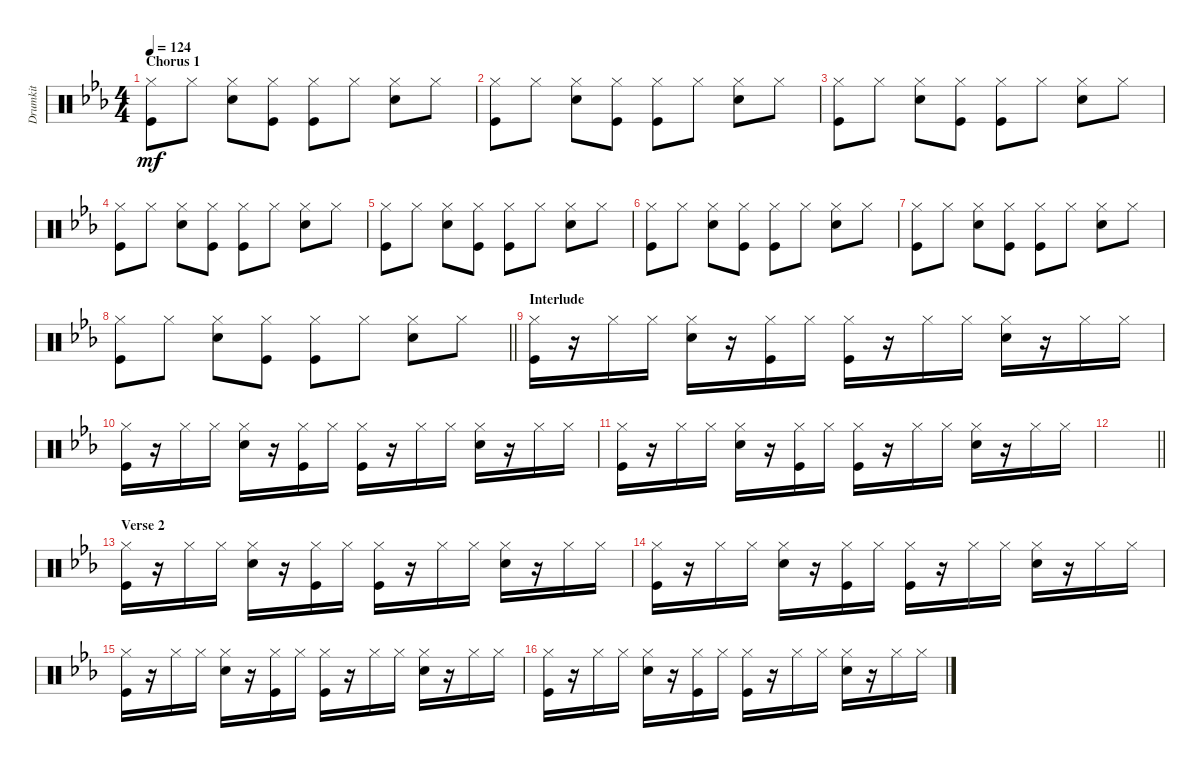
\track ("Drumkit" "Drumkit") {instrument percussion}
\staff {score}
\articulation defaults
\ts (4 4)
\section ("" "Chorus 1")
\tempo 124
\clef neutral
\ks eb
("Hi-Hat (closed)" "Kick (hit)").8{dy mf} "Hi-Hat (closed)".8 ("Hi-Hat (closed)" "Snare (hit) 2").8 ("Hi-Hat (closed)" "Kick (hit)").8 ("Hi-Hat (closed)" "Kick (hit)").8 "Hi-Hat (closed)".8 ("Hi-Hat (closed)" "Snare (hit) 2").8 "Hi-Hat (closed)".8 |
("Hi-Hat (closed)" "Kick (hit)").8 "Hi-Hat (closed)".8 ("Hi-Hat (closed)" "Snare (hit) 2").8 ("Hi-Hat (closed)" "Kick (hit)").8 ("Hi-Hat (closed)" "Kick (hit)").8 "Hi-Hat (closed)".8 ("Hi-Hat (closed)" "Snare (hit) 2").8 "Hi-Hat (closed)".8 |
("Hi-Hat (closed)" "Kick (hit)").8 "Hi-Hat (closed)".8 ("Hi-Hat (closed)" "Snare (hit) 2").8 ("Hi-Hat (closed)" "Kick (hit)").8 ("Hi-Hat (closed)" "Kick (hit)").8 "Hi-Hat (closed)".8 ("Hi-Hat (closed)" "Snare (hit) 2").8 "Hi-Hat (closed)".8 |
("Hi-Hat (closed)" "Kick (hit)").8 "Hi-Hat (closed)".8 ("Hi-Hat (closed)" "Snare (hit) 2").8 ("Hi-Hat (closed)" "Kick (hit)").8 ("Hi-Hat (closed)" "Kick (hit)").8 "Hi-Hat (closed)".8 ("Hi-Hat (closed)" "Snare (hit) 2").8 "Hi-Hat (closed)".8 |
("Hi-Hat (closed)" "Kick (hit)").8 "Hi-Hat (closed)".8 ("Hi-Hat (closed)" "Snare (hit) 2").8 ("Hi-Hat (closed)" "Kick (hit)").8 ("Hi-Hat (closed)" "Kick (hit)").8 "Hi-Hat (closed)".8 ("Hi-Hat (closed)" "Snare (hit) 2").8 "Hi-Hat (closed)".8 |
("Hi-Hat (closed)" "Kick (hit)").8 "Hi-Hat (closed)".8 ("Hi-Hat (closed)" "Snare (hit) 2").8 ("Hi-Hat (closed)" "Kick (hit)").8 ("Hi-Hat (closed)" "Kick (hit)").8 "Hi-Hat (closed)".8 ("Hi-Hat (closed)" "Snare (hit) 2").8 "Hi-Hat (closed)".8 |
("Hi-Hat (closed)" "Kick (hit)").8 "Hi-Hat (closed)".8 ("Hi-Hat (closed)" "Snare (hit) 2").8 ("Hi-Hat (closed)" "Kick (hit)").8 ("Hi-Hat (closed)" "Kick (hit)").8 "Hi-Hat (closed)".8 ("Hi-Hat (closed)" "Snare (hit) 2").8 "Hi-Hat (closed)".8 |
\barLineRight lightlight
("Hi-Hat (closed)" "Kick (hit)").8 "Hi-Hat (closed)".8 ("Hi-Hat (closed)" "Snare (hit) 2").8 ("Hi-Hat (closed)" "Kick (hit)").8 ("Hi-Hat (closed)" "Kick (hit)").8 "Hi-Hat (closed)".8 ("Hi-Hat (closed)" "Snare (hit) 2").8 "Hi-Hat (closed)".8 |
\section ("" "Interlude")
("Hi-Hat (closed)" "Kick (hit)").16 r.16 "Hi-Hat (closed)".16 "Hi-Hat (closed)".16 ("Hi-Hat (closed)" "Snare (hit) 2").16 r.16 ("Hi-Hat (closed)" "Kick (hit)").16 "Hi-Hat (closed)".16 ("Hi-Hat (closed)" "Kick (hit)").16 r.16 "Hi-Hat (closed)".16 "Hi-Hat (closed)".16 ("Hi-Hat (closed)" "Snare (hit) 2").16 r.16 "Hi-Hat (closed)".16 "Hi-Hat (closed)".16 |
("Hi-Hat (closed)" "Kick (hit)").16 r.16 "Hi-Hat (closed)".16 "Hi-Hat (closed)".16 ("Hi-Hat (closed)" "Snare (hit) 2").16 r.16 ("Hi-Hat (closed)" "Kick (hit)").16 "Hi-Hat (closed)".16 ("Hi-Hat (closed)" "Kick (hit)").16 r.16 "Hi-Hat (closed)".16 "Hi-Hat (closed)".16 ("Hi-Hat (closed)" "Snare (hit) 2").16 r.16 "Hi-Hat (closed)".16 "Hi-Hat (closed)".16 |
("Hi-Hat (closed)" "Kick (hit)").16 r.16 "Hi-Hat (closed)".16 "Hi-Hat (closed)".16 ("Hi-Hat (closed)" "Snare (hit) 2").16 r.16 ("Hi-Hat (closed)" "Kick (hit)").16 "Hi-Hat (closed)".16 ("Hi-Hat (closed)" "Kick (hit)").16 r.16 "Hi-Hat (closed)".16 "Hi-Hat (closed)".16 ("Hi-Hat (closed)" "Snare (hit) 2").16 r.16 "Hi-Hat (closed)".16 "Hi-Hat (closed)".16 |
\barLineRight lightlight
|
\section ("" "Verse 2")
("Hi-Hat (closed)" "Kick (hit)").16 r.16 "Hi-Hat (closed)".16 "Hi-Hat (closed)".16 ("Hi-Hat (closed)" "Snare (hit) 2").16 r.16 ("Hi-Hat (closed)" "Kick (hit)").16 "Hi-Hat (closed)".16 ("Hi-Hat (closed)" "Kick (hit)").16 r.16 "Hi-Hat (closed)".16 "Hi-Hat (closed)".16 ("Hi-Hat (closed)" "Snare (hit) 2").16 r.16 "Hi-Hat (closed)".16 "Hi-Hat (closed)".16 |
("Hi-Hat (closed)" "Kick (hit)").16 r.16 "Hi-Hat (closed)".16 "Hi-Hat (closed)".16 ("Hi-Hat (closed)" "Snare (hit) 2").16 r.16 ("Hi-Hat (closed)" "Kick (hit)").16 "Hi-Hat (closed)".16 ("Hi-Hat (closed)" "Kick (hit)").16 r.16 "Hi-Hat (closed)".16 "Hi-Hat (closed)".16 ("Hi-Hat (closed)" "Snare (hit) 2").16 r.16 "Hi-Hat (closed)".16 "Hi-Hat (closed)".16 |
("Hi-Hat (closed)" "Kick (hit)").16 r.16 "Hi-Hat (closed)".16 "Hi-Hat (closed)".16 ("Hi-Hat (closed)" "Snare (hit) 2").16 r.16 ("Hi-Hat (closed)" "Kick (hit)").16 "Hi-Hat (closed)".16 ("Hi-Hat (closed)" "Kick (hit)").16 r.16 "Hi-Hat (closed)".16 "Hi-Hat (closed)".16 ("Hi-Hat (closed)" "Snare (hit) 2").16 r.16 "Hi-Hat (closed)".16 "Hi-Hat (closed)".16 |
("Hi-Hat (closed)" "Kick (hit)").16 r.16 "Hi-Hat (closed)".16 "Hi-Hat (closed)".16 ("Hi-Hat (closed)" "Snare (hit) 2").16 r.16 ("Hi-Hat (closed)" "Kick (hit)").16 "Hi-Hat (closed)".16 ("Hi-Hat (closed)" "Kick (hit)").16 r.16 "Hi-Hat (closed)".16 "Hi-Hat (closed)".16 ("Hi-Hat (closed)" "Snare (hit) 2").16 r.16 "Hi-Hat (closed)".16 "Hi-Hat (closed)".16
